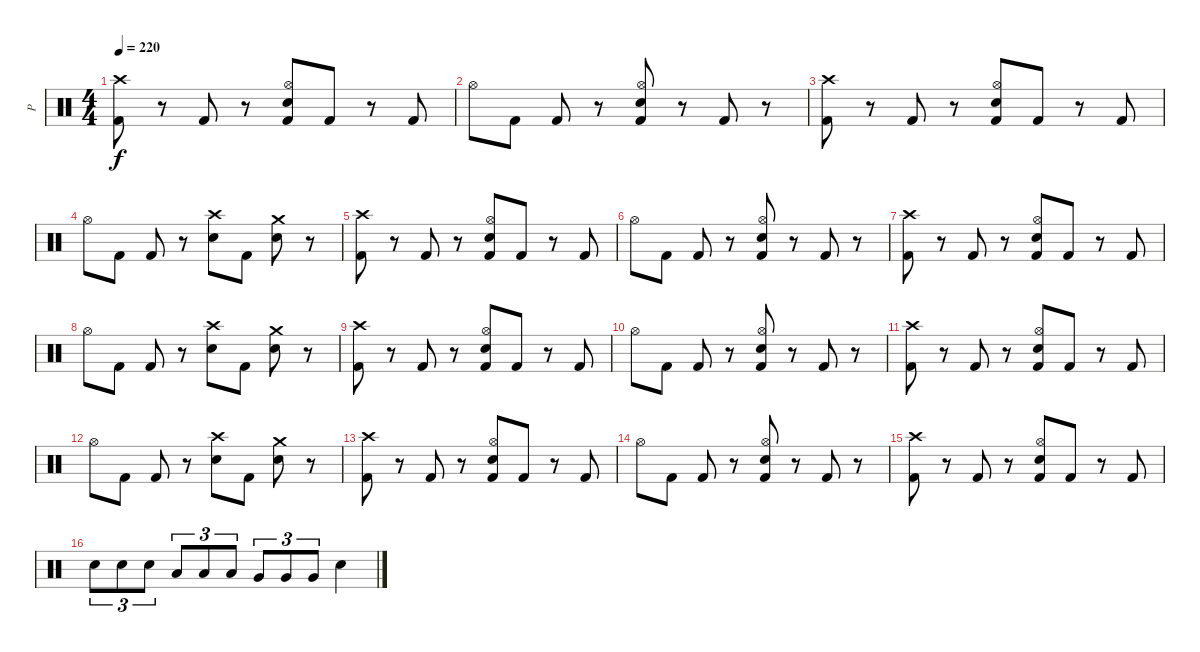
\track ("P" "P") {instrument percussion}
\staff {score}
\articulation defaults
\ts (4 4)
\tempo 220
\clef neutral
\ks c
("Crash high (hit)" "Kick (hit) 2").8{dy f} r.8 "Kick (hit) 2".8 r.8 ("Hi-Hat (open)" "Electric Snare (hit)" "Kick (hit) 2").8 "Kick (hit) 2".8 r.8 "Kick (hit) 2".8 |
"Hi-Hat (open)".8 "Kick (hit) 2".8 "Kick (hit) 2".8 r.8 ("Hi-Hat (open)" "Electric Snare (hit)" "Kick (hit) 2").8 r.8 "Kick (hit) 2".8 r.8 |
("Crash high (hit)" "Kick (hit) 2").8 r.8 "Kick (hit) 2".8 r.8 ("Hi-Hat (open)" "Electric Snare (hit)" "Kick (hit) 2").8 "Kick (hit) 2".8 r.8 "Kick (hit) 2".8 |
"Hi-Hat (open)".8 "Kick (hit) 2".8 "Kick (hit) 2".8 r.8 ("Crash high (hit)" "Electric Snare (hit)").8 "Kick (hit) 2".8 ("Crash medium (hit)" "Electric Snare (hit)").8 r.8 |
("Crash high (hit)" "Kick (hit) 2").8 r.8 "Kick (hit) 2".8 r.8 ("Hi-Hat (open)" "Electric Snare (hit)" "Kick (hit) 2").8 "Kick (hit) 2".8 r.8 "Kick (hit) 2".8 |
"Hi-Hat (open)".8 "Kick (hit) 2".8 "Kick (hit) 2".8 r.8 ("Hi-Hat (open)" "Electric Snare (hit)" "Kick (hit) 2").8 r.8 "Kick (hit) 2".8 r.8 |
("Crash high (hit)" "Kick (hit) 2").8 r.8 "Kick (hit) 2".8 r.8 ("Hi-Hat (open)" "Electric Snare (hit)" "Kick (hit) 2").8 "Kick (hit) 2".8 r.8 "Kick (hit) 2".8 |
"Hi-Hat (open)".8 "Kick (hit) 2".8 "Kick (hit) 2".8 r.8 ("Crash high (hit)" "Electric Snare (hit)").8 "Kick (hit) 2".8 ("Crash medium (hit)" "Electric Snare (hit)").8 r.8 |
("Crash high (hit)" "Kick (hit) 2").8 r.8 "Kick (hit) 2".8 r.8 ("Hi-Hat (open)" "Electric Snare (hit)" "Kick (hit) 2").8 "Kick (hit) 2".8 r.8 "Kick (hit) 2".8 |
"Hi-Hat (open)".8 "Kick (hit) 2".8 "Kick (hit) 2".8 r.8 ("Hi-Hat (open)" "Electric Snare (hit)" "Kick (hit) 2").8 r.8 "Kick (hit) 2".8 r.8 |
("Crash high (hit)" "Kick (hit) 2").8 r.8 "Kick (hit) 2".8 r.8 ("Hi-Hat (open)" "Electric Snare (hit)" "Kick (hit) 2").8 "Kick (hit) 2".8 r.8 "Kick (hit) 2".8 |
"Hi-Hat (open)".8 "Kick (hit) 2".8 "Kick (hit) 2".8 r.8 ("Crash high (hit)" "Electric Snare (hit)").8 "Kick (hit) 2".8 ("Crash medium (hit)" "Electric Snare (hit)").8 r.8 |
("Crash high (hit)" "Kick (hit) 2").8 r.8 "Kick (hit) 2".8 r.8 ("Hi-Hat (open)" "Electric Snare (hit)" "Kick (hit) 2").8 "Kick (hit) 2".8 r.8 "Kick (hit) 2".8 |
"Hi-Hat (open)".8 "Kick (hit) 2".8 "Kick (hit) 2".8 r.8 ("Hi-Hat (open)" "Electric Snare (hit)" "Kick (hit) 2").8 r.8 "Kick (hit) 2".8 r.8 |
("Crash high (hit)" "Kick (hit) 2").8 r.8 "Kick (hit) 2".8 r.8 ("Hi-Hat (open)" "Electric Snare (hit)" "Kick (hit) 2").8 "Kick (hit) 2".8 r.8 "Kick (hit) 2".8 |
"Electric Snare (hit)".8{tu (3 2)} "Electric Snare (hit)".8{tu (3 2)} "Electric Snare (hit)".8{tu (3 2)} "Low Tom (hit)".8{tu (3 2)} "Low Tom (hit)".8{tu (3 2)} "Low Tom (hit)".8{tu (3 2)} "Very Low Tom (hit)".8{tu (3 2)} "Very Low Tom (hit)".8{tu (3 2)} "Very Low Tom (hit)".8{tu (3 2)} "Electric Snare (hit)".4
